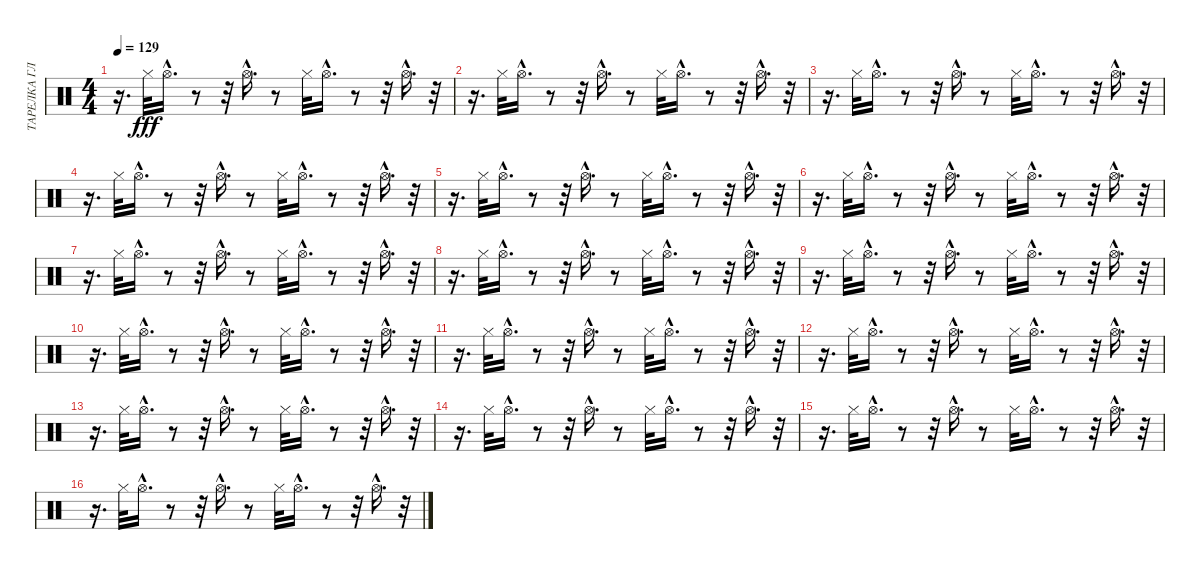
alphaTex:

\track ("ТАРЕЛКА ГЛУХАЯ" "ТАРЕЛКА ГЛ") {instrument percussion}
\staff {score}
\articulation defaults
\ts (4 4)
\tempo 129
\clef neutral
\ks c
r.16{d dy fff} "Hi-Hat (closed)".32 "Hi-Hat (open)"{hac}.16{d} r.8 r.32 "Hi-Hat (open)"{hac}.16{d} r.8 "Hi-Hat (closed)".32 "Hi-Hat (open)"{hac}.16{d} r.8 r.32 "Hi-Hat (open)"{hac}.16{d} r.32 |
r.16{d} "Hi-Hat (closed)".32 "Hi-Hat (open)"{hac}.16{d} r.8 r.32 "Hi-Hat (open)"{hac}.16{d} r.8 "Hi-Hat (closed)".32 "Hi-Hat (open)"{hac}.16{d} r.8 r.32 "Hi-Hat (open)"{hac}.16{d} r.32 |
r.16{d} "Hi-Hat (closed)".32 "Hi-Hat (open)"{hac}.16{d} r.8 r.32 "Hi-Hat (open)"{hac}.16{d} r.8 "Hi-Hat (closed)".32 "Hi-Hat (open)"{hac}.16{d} r.8 r.32 "Hi-Hat (open)"{hac}.16{d} r.32 |
r.16{d} "Hi-Hat (closed)".32 "Hi-Hat (open)"{hac}.16{d} r.8 r.32 "Hi-Hat (open)"{hac}.16{d} r.8 "Hi-Hat (closed)".32 "Hi-Hat (open)"{hac}.16{d} r.8 r.32 "Hi-Hat (open)"{hac}.16{d} r.32 |
r.16{d} "Hi-Hat (closed)".32 "Hi-Hat (open)"{hac}.16{d} r.8 r.32 "Hi-Hat (open)"{hac}.16{d} r.8 "Hi-Hat (closed)".32 "Hi-Hat (open)"{hac}.16{d} r.8 r.32 "Hi-Hat (open)"{hac}.16{d} r.32 |
r.16{d} "Hi-Hat (closed)".32 "Hi-Hat (open)"{hac}.16{d} r.8 r.32 "Hi-Hat (open)"{hac}.16{d} r.8 "Hi-Hat (closed)".32 "Hi-Hat (open)"{hac}.16{d} r.8 r.32 "Hi-Hat (open)"{hac}.16{d} r.32 |
r.16{d} "Hi-Hat (closed)".32 "Hi-Hat (open)"{hac}.16{d} r.8 r.32 "Hi-Hat (open)"{hac}.16{d} r.8 "Hi-Hat (closed)".32 "Hi-Hat (open)"{hac}.16{d} r.8 r.32 "Hi-Hat (open)"{hac}.16{d} r.32 |
r.16{d} "Hi-Hat (closed)".32 "Hi-Hat (open)"{hac}.16{d} r.8 r.32 "Hi-Hat (open)"{hac}.16{d} r.8 "Hi-Hat (closed)".32 "Hi-Hat (open)"{hac}.16{d} r.8 r.32 "Hi-Hat (open)"{hac}.16{d} r.32 |
r.16{d} "Hi-Hat (closed)".32 "Hi-Hat (open)"{hac}.16{d} r.8 r.32 "Hi-Hat (open)"{hac}.16{d} r.8 "Hi-Hat (closed)".32 "Hi-Hat (open)"{hac}.16{d} r.8 r.32 "Hi-Hat (open)"{hac}.16{d} r.32 |
r.16{d} "Hi-Hat (closed)".32 "Hi-Hat (open)"{hac}.16{d} r.8 r.32 "Hi-Hat (open)"{hac}.16{d} r.8 "Hi-Hat (closed)".32 "Hi-Hat (open)"{hac}.16{d} r.8 r.32 "Hi-Hat (open)"{hac}.16{d} r.32 |
r.16{d} "Hi-Hat (closed)".32 "Hi-Hat (open)"{hac}.16{d} r.8 r.32 "Hi-Hat (open)"{hac}.16{d} r.8 "Hi-Hat (closed)".32 "Hi-Hat (open)"{hac}.16{d} r.8 r.32 "Hi-Hat (open)"{hac}.16{d} r.32 |
r.16{d} "Hi-Hat (closed)".32 "Hi-Hat (open)"{hac}.16{d} r.8 r.32 "Hi-Hat (open)"{hac}.16{d} r.8 "Hi-Hat (closed)".32 "Hi-Hat (open)"{hac}.16{d} r.8 r.32 "Hi-Hat (open)"{hac}.16{d} r.32 |
r.16{d} "Hi-Hat (closed)".32 "Hi-Hat (open)"{hac}.16{d} r.8 r.32 "Hi-Hat (open)"{hac}.16{d} r.8 "Hi-Hat (closed)".32 "Hi-Hat (open)"{hac}.16{d} r.8 r.32 "Hi-Hat (open)"{hac}.16{d} r.32 |
r.16{d} "Hi-Hat (closed)".32 "Hi-Hat (open)"{hac}.16{d} r.8 r.32 "Hi-Hat (open)"{hac}.16{d} r.8 "Hi-Hat (closed)".32 "Hi-Hat (open)"{hac}.16{d} r.8 r.32 "Hi-Hat (open)"{hac}.16{d} r.32 |
r.16{d} "Hi-Hat (closed)".32 "Hi-Hat (open)"{hac}.16{d} r.8 r.32 "Hi-Hat (open)"{hac}.16{d} r.8 "Hi-Hat (closed)".32 "Hi-Hat (open)"{hac}.16{d} r.8 r.32 "Hi-Hat (open)"{hac}.16{d} r.32 |
r.16{d} "Hi-Hat (closed)".32 "Hi-Hat (open)"{hac}.16{d} r.8 r.32 "Hi-Hat (open)"{hac}.16{d} r.8 "Hi-Hat (closed)".32 "Hi-Hat (open)"{hac}.16{d} r.8 r.32 "Hi-Hat (open)"{hac}.16{d} r.32
